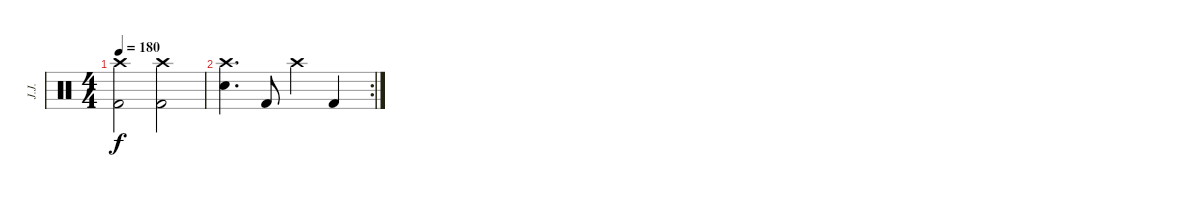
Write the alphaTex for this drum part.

\track ("J.J." "J.J.") {instrument percussion}
\staff {score}
\articulation defaults
\ts (4 4)
\tempo 180
\clef neutral
\ks c
("Crash high (hit)" "Kick (hit) 2").2{dy f} ("Crash high (hit)" "Kick (hit) 2").2 |
\rc 2
("Crash high (hit)" "Electric Snare (hit)").4{d} "Kick (hit) 2".8 "Crash high (hit)".4 "Kick (hit) 2".4
